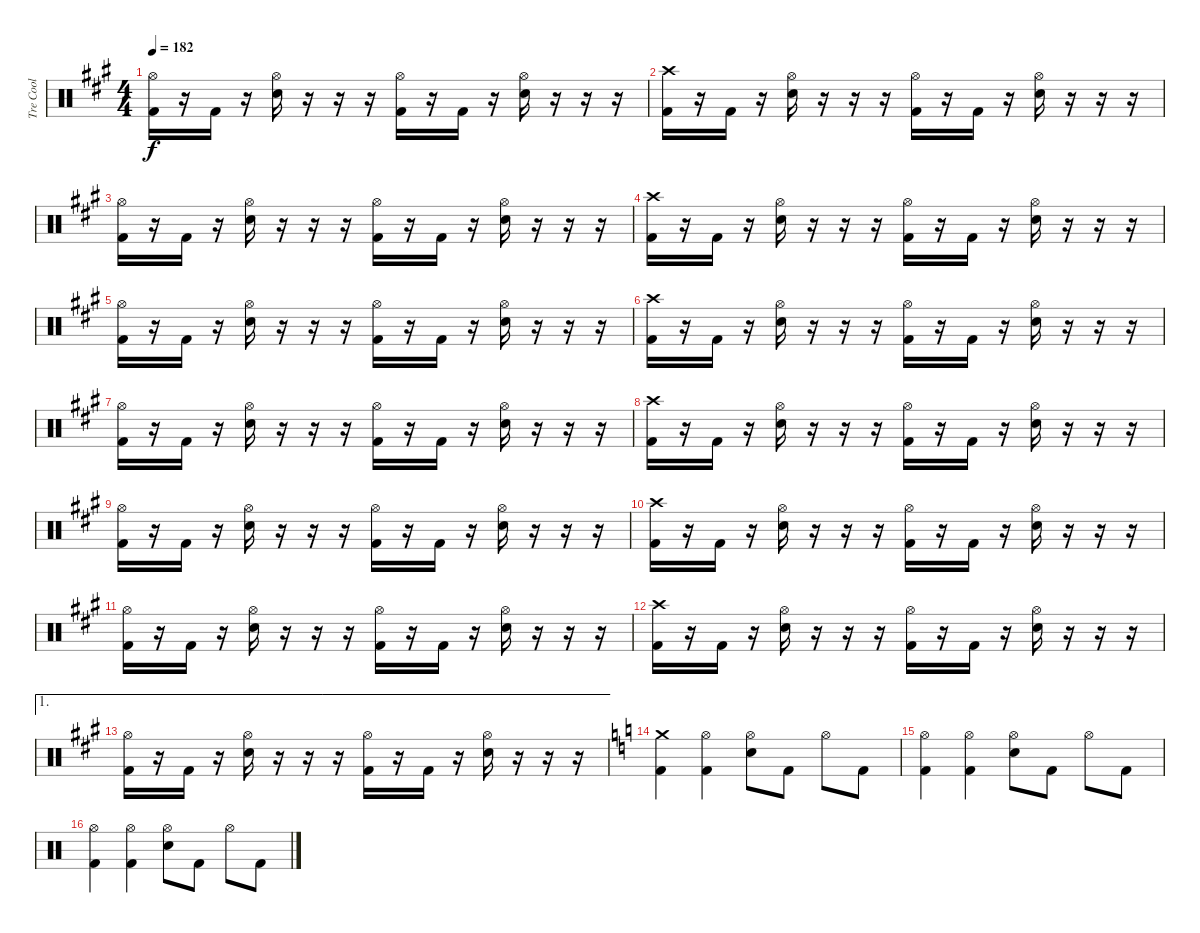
\track ("Tre Cool" "Tre Cool") {instrument percussion}
\staff {score}
\articulation defaults
\ts (4 4)
\tempo 182
\clef neutral
\ks a
("Hi-Hat (open)" "Kick (hit) 2").16{dy f} r.16 "Kick (hit) 2".16 r.16 ("Hi-Hat (open)" "Snare (hit) 2").16 r.16 r.16 r.16 ("Hi-Hat (open)" "Kick (hit) 2").16 r.16 "Kick (hit) 2".16 r.16 ("Hi-Hat (open)" "Snare (hit) 2").16 r.16 r.16 r.16 |
("Crash high (hit)" "Kick (hit) 2").16 r.16 "Kick (hit) 2".16 r.16 ("Hi-Hat (open)" "Snare (hit) 2").16 r.16 r.16 r.16 ("Hi-Hat (open)" "Kick (hit) 2").16 r.16 "Kick (hit) 2".16 r.16 ("Hi-Hat (open)" "Snare (hit) 2").16 r.16 r.16 r.16 |
("Hi-Hat (open)" "Kick (hit) 2").16 r.16 "Kick (hit) 2".16 r.16 ("Hi-Hat (open)" "Snare (hit) 2").16 r.16 r.16 r.16 ("Hi-Hat (open)" "Kick (hit) 2").16 r.16 "Kick (hit) 2".16 r.16 ("Hi-Hat (open)" "Snare (hit) 2").16 r.16 r.16 r.16 |
("Crash high (hit)" "Kick (hit) 2").16 r.16 "Kick (hit) 2".16 r.16 ("Hi-Hat (open)" "Snare (hit) 2").16 r.16 r.16 r.16 ("Hi-Hat (open)" "Kick (hit) 2").16 r.16 "Kick (hit) 2".16 r.16 ("Hi-Hat (open)" "Snare (hit) 2").16 r.16 r.16 r.16 |
("Hi-Hat (open)" "Kick (hit) 2").16 r.16 "Kick (hit) 2".16 r.16 ("Hi-Hat (open)" "Snare (hit) 2").16 r.16 r.16 r.16 ("Hi-Hat (open)" "Kick (hit) 2").16 r.16 "Kick (hit) 2".16 r.16 ("Hi-Hat (open)" "Snare (hit) 2").16 r.16 r.16 r.16 |
("Crash high (hit)" "Kick (hit) 2").16 r.16 "Kick (hit) 2".16 r.16 ("Hi-Hat (open)" "Snare (hit) 2").16 r.16 r.16 r.16 ("Hi-Hat (open)" "Kick (hit) 2").16 r.16 "Kick (hit) 2".16 r.16 ("Hi-Hat (open)" "Snare (hit) 2").16 r.16 r.16 r.16 |
("Hi-Hat (open)" "Kick (hit) 2").16 r.16 "Kick (hit) 2".16 r.16 ("Hi-Hat (open)" "Snare (hit) 2").16 r.16 r.16 r.16 ("Hi-Hat (open)" "Kick (hit) 2").16 r.16 "Kick (hit) 2".16 r.16 ("Hi-Hat (open)" "Snare (hit) 2").16 r.16 r.16 r.16 |
("Crash high (hit)" "Kick (hit) 2").16 r.16 "Kick (hit) 2".16 r.16 ("Hi-Hat (open)" "Snare (hit) 2").16 r.16 r.16 r.16 ("Hi-Hat (open)" "Kick (hit) 2").16 r.16 "Kick (hit) 2".16 r.16 ("Hi-Hat (open)" "Snare (hit) 2").16 r.16 r.16 r.16 |
("Hi-Hat (open)" "Kick (hit) 2").16 r.16 "Kick (hit) 2".16 r.16 ("Hi-Hat (open)" "Snare (hit) 2").16 r.16 r.16 r.16 ("Hi-Hat (open)" "Kick (hit) 2").16 r.16 "Kick (hit) 2".16 r.16 ("Hi-Hat (open)" "Snare (hit) 2").16 r.16 r.16 r.16 |
("Crash high (hit)" "Kick (hit) 2").16 r.16 "Kick (hit) 2".16 r.16 ("Hi-Hat (open)" "Snare (hit) 2").16 r.16 r.16 r.16 ("Hi-Hat (open)" "Kick (hit) 2").16 r.16 "Kick (hit) 2".16 r.16 ("Hi-Hat (open)" "Snare (hit) 2").16 r.16 r.16 r.16 |
("Hi-Hat (open)" "Kick (hit) 2").16 r.16 "Kick (hit) 2".16 r.16 ("Hi-Hat (open)" "Snare (hit) 2").16 r.16 r.16 r.16 ("Hi-Hat (open)" "Kick (hit) 2").16 r.16 "Kick (hit) 2".16 r.16 ("Hi-Hat (open)" "Snare (hit) 2").16 r.16 r.16 r.16 |
("Crash high (hit)" "Kick (hit) 2").16 r.16 "Kick (hit) 2".16 r.16 ("Hi-Hat (open)" "Snare (hit) 2").16 r.16 r.16 r.16 ("Hi-Hat (open)" "Kick (hit) 2").16 r.16 "Kick (hit) 2".16 r.16 ("Hi-Hat (open)" "Snare (hit) 2").16 r.16 r.16 r.16 |
\ae 1
("Hi-Hat (open)" "Kick (hit) 2").16 r.16 "Kick (hit) 2".16 r.16 ("Hi-Hat (open)" "Snare (hit) 2").16 r.16 r.16 r.16 ("Hi-Hat (open)" "Kick (hit) 2").16 r.16 "Kick (hit) 2".16 r.16 ("Hi-Hat (open)" "Snare (hit) 2").16 r.16 r.16 r.16 |
\ks c
("Crash medium (hit)" "Kick (hit) 2").4 ("Hi-Hat (open)" "Kick (hit) 2").4 ("Electric Snare (hit)" "Hi-Hat (open)").8 "Kick (hit) 2".8 "Hi-Hat (open)".8 "Kick (hit) 2".8 |
("Hi-Hat (open)" "Kick (hit) 2").4 ("Hi-Hat (open)" "Kick (hit) 2").4 ("Electric Snare (hit)" "Hi-Hat (open)").8 "Kick (hit) 2".8 "Hi-Hat (open)".8 "Kick (hit) 2".8 |
("Hi-Hat (open)" "Kick (hit) 2").4 ("Hi-Hat (open)" "Kick (hit) 2").4 ("Electric Snare (hit)" "Hi-Hat (open)").8 "Kick (hit) 2".8 "Hi-Hat (open)".8 "Kick (hit) 2".8
